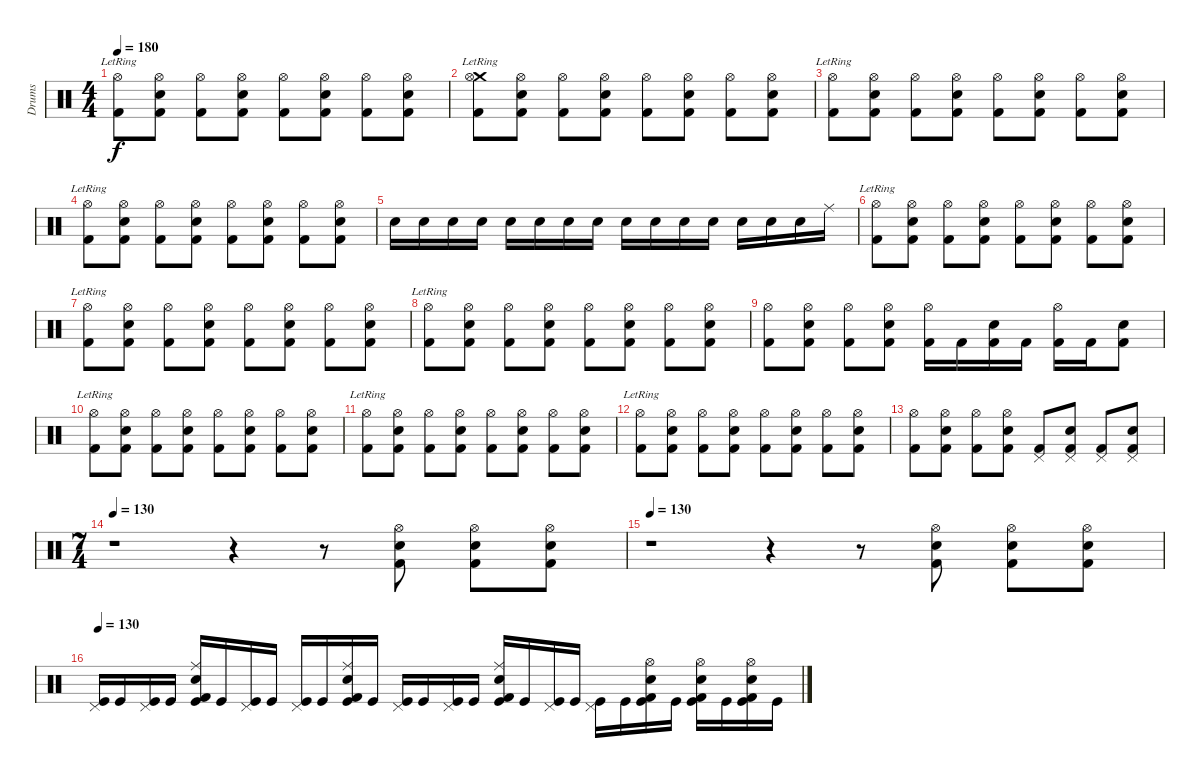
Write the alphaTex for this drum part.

\track ("Drums" "Drums") {instrument percussion}
\staff {score}
\articulation defaults
\ts (4 4)
\tempo 180
\clef neutral
\ks c
("Hi-Hat (open)"{lr} "Kick (hit) 2").8{dy f} ("Hi-Hat (open)" "Electric Snare (hit)" "Kick (hit) 2").8 ("Hi-Hat (open)" "Kick (hit) 2").8 ("Hi-Hat (open)" "Electric Snare (hit)" "Kick (hit) 2").8 ("Hi-Hat (open)" "Kick (hit) 2").8 ("Hi-Hat (open)" "Electric Snare (hit)" "Kick (hit) 2").8 ("Hi-Hat (open)" "Kick (hit) 2").8 ("Hi-Hat (open)" "Electric Snare (hit)" "Kick (hit) 2").8 |
("Crash medium (hit)" "Hi-Hat (open)"{lr} "Kick (hit) 2").8 ("Hi-Hat (open)" "Electric Snare (hit)" "Kick (hit) 2").8 ("Hi-Hat (open)" "Kick (hit) 2").8 ("Hi-Hat (open)" "Electric Snare (hit)" "Kick (hit) 2").8 ("Hi-Hat (open)" "Kick (hit) 2").8 ("Hi-Hat (open)" "Electric Snare (hit)" "Kick (hit) 2").8 ("Hi-Hat (open)" "Kick (hit) 2").8 ("Hi-Hat (open)" "Electric Snare (hit)" "Kick (hit) 2").8 |
("Hi-Hat (open)"{lr} "Kick (hit) 2").8 ("Hi-Hat (open)" "Electric Snare (hit)" "Kick (hit) 2").8 ("Hi-Hat (open)" "Kick (hit) 2").8 ("Hi-Hat (open)" "Electric Snare (hit)" "Kick (hit) 2").8 ("Hi-Hat (open)" "Kick (hit) 2").8 ("Hi-Hat (open)" "Electric Snare (hit)" "Kick (hit) 2").8 ("Hi-Hat (open)" "Kick (hit) 2").8 ("Hi-Hat (open)" "Electric Snare (hit)" "Kick (hit) 2").8 |
("Hi-Hat (open)"{lr} "Kick (hit) 2").8 ("Hi-Hat (open)" "Electric Snare (hit)" "Kick (hit) 2").8 ("Hi-Hat (open)" "Kick (hit) 2").8 ("Hi-Hat (open)" "Electric Snare (hit)" "Kick (hit) 2").8 ("Hi-Hat (open)" "Kick (hit) 2").8 ("Hi-Hat (open)" "Electric Snare (hit)" "Kick (hit) 2").8 ("Hi-Hat (open)" "Kick (hit) 2").8 ("Hi-Hat (open)" "Electric Snare (hit)" "Kick (hit) 2").8 |
"Electric Snare (hit)".16 "Electric Snare (hit)".16 "Electric Snare (hit)".16 "Electric Snare (hit)".16 "Electric Snare (hit)".16 "Electric Snare (hit)".16 "Electric Snare (hit)".16 "Electric Snare (hit)".16 "Electric Snare (hit)".16 "Electric Snare (hit)".16 "Electric Snare (hit)".16 "Electric Snare (hit)".16 "Electric Snare (hit)".16 "Electric Snare (hit)".16 "Electric Snare (hit)".16 "Ride (middle)".16 |
("Hi-Hat (open)"{lr} "Kick (hit) 2").8 ("Hi-Hat (open)" "Electric Snare (hit)" "Kick (hit) 2").8 ("Hi-Hat (open)" "Kick (hit) 2").8 ("Hi-Hat (open)" "Electric Snare (hit)" "Kick (hit) 2").8 ("Hi-Hat (open)" "Kick (hit) 2").8 ("Hi-Hat (open)" "Electric Snare (hit)" "Kick (hit) 2").8 ("Hi-Hat (open)" "Kick (hit) 2").8 ("Hi-Hat (open)" "Electric Snare (hit)" "Kick (hit) 2").8 |
("Hi-Hat (open)"{lr} "Kick (hit) 2").8 ("Hi-Hat (open)" "Electric Snare (hit)" "Kick (hit) 2").8 ("Hi-Hat (open)" "Kick (hit) 2").8 ("Hi-Hat (open)" "Electric Snare (hit)" "Kick (hit) 2").8 ("Hi-Hat (open)" "Kick (hit) 2").8 ("Hi-Hat (open)" "Electric Snare (hit)" "Kick (hit) 2").8 ("Hi-Hat (open)" "Kick (hit) 2").8 ("Hi-Hat (open)" "Electric Snare (hit)" "Kick (hit) 2").8 |
("Hi-Hat (open)"{lr} "Kick (hit) 2").8 ("Hi-Hat (open)" "Electric Snare (hit)" "Kick (hit) 2").8 ("Hi-Hat (open)" "Kick (hit) 2").8 ("Hi-Hat (open)" "Electric Snare (hit)" "Kick (hit) 2").8 ("Hi-Hat (open)" "Kick (hit) 2").8 ("Hi-Hat (open)" "Electric Snare (hit)" "Kick (hit) 2").8 ("Hi-Hat (open)" "Kick (hit) 2").8 ("Hi-Hat (open)" "Electric Snare (hit)" "Kick (hit) 2").8 |
("Hi-Hat (open)" "Kick (hit) 2").8 ("Hi-Hat (open)" "Electric Snare (hit)" "Kick (hit) 2").8 ("Hi-Hat (open)" "Kick (hit) 2").8 ("Hi-Hat (open)" "Electric Snare (hit)" "Kick (hit) 2").8 ("Hi-Hat (open)" "Kick (hit) 2").16 "Kick (hit) 2".16 ("Electric Snare (hit)" "Kick (hit) 2").16 "Kick (hit) 2".16 ("Hi-Hat (open)" "Kick (hit) 2").16 "Kick (hit) 2".16 ("Electric Snare (hit)" "Kick (hit) 2").8 |
("Hi-Hat (open)"{lr} "Kick (hit) 2").8 ("Hi-Hat (open)" "Electric Snare (hit)" "Kick (hit) 2").8 ("Hi-Hat (open)" "Kick (hit) 2").8 ("Hi-Hat (open)" "Electric Snare (hit)" "Kick (hit) 2").8 ("Hi-Hat (open)" "Kick (hit) 2").8 ("Hi-Hat (open)" "Electric Snare (hit)" "Kick (hit) 2").8 ("Hi-Hat (open)" "Kick (hit) 2").8 ("Hi-Hat (open)" "Electric Snare (hit)" "Kick (hit) 2").8 |
("Hi-Hat (open)"{lr} "Kick (hit) 2").8 ("Hi-Hat (open)" "Electric Snare (hit)" "Kick (hit) 2").8 ("Hi-Hat (open)" "Kick (hit) 2").8 ("Hi-Hat (open)" "Electric Snare (hit)" "Kick (hit) 2").8 ("Hi-Hat (open)" "Kick (hit) 2").8 ("Hi-Hat (open)" "Electric Snare (hit)" "Kick (hit) 2").8 ("Hi-Hat (open)" "Kick (hit) 2").8 ("Hi-Hat (open)" "Electric Snare (hit)" "Kick (hit) 2").8 |
("Hi-Hat (open)"{lr} "Kick (hit) 2").8 ("Hi-Hat (open)" "Electric Snare (hit)" "Kick (hit) 2").8 ("Hi-Hat (open)" "Kick (hit) 2").8 ("Hi-Hat (open)" "Electric Snare (hit)" "Kick (hit) 2").8 ("Hi-Hat (open)" "Kick (hit) 2").8 ("Hi-Hat (open)" "Electric Snare (hit)" "Kick (hit) 2").8 ("Hi-Hat (open)" "Kick (hit) 2").8 ("Hi-Hat (open)" "Electric Snare (hit)" "Kick (hit) 2").8 |
("Hi-Hat (open)" "Kick (hit) 2").8 ("Hi-Hat (open)" "Electric Snare (hit)" "Kick (hit) 2").8 ("Hi-Hat (open)" "Kick (hit) 2").8 ("Hi-Hat (open)" "Electric Snare (hit)" "Kick (hit) 2").8 ("Pedal Hi-Hat (hit)" "Kick (hit) 2").8 ("Pedal Hi-Hat (hit)" "Electric Snare (hit)" "Kick (hit) 2").8 ("Pedal Hi-Hat (hit)" "Kick (hit) 2").8 ("Pedal Hi-Hat (hit)" "Electric Snare (hit)" "Kick (hit) 2").8 |
\ts (7 4)
\tempo 130
r.1 r.4 r.8 ("Hi-Hat (open)" "Electric Snare (hit)" "Kick (hit) 2").8 ("Hi-Hat (open)" "Electric Snare (hit)" "Kick (hit) 2").8 ("Hi-Hat (open)" "Electric Snare (hit)" "Kick (hit) 2").8 |
\tempo 130
r.1 r.4 r.8 ("Hi-Hat (open)" "Electric Snare (hit)" "Kick (hit) 2").8 ("Hi-Hat (open)" "Electric Snare (hit)" "Kick (hit) 2").8 ("Hi-Hat (open)" "Electric Snare (hit)" "Kick (hit) 2").8 |
\tempo 130
("Pedal Hi-Hat (hit)" "Kick (hit)").16 "Kick (hit)".16 ("Pedal Hi-Hat (hit)" "Kick (hit)").16 "Kick (hit)".16 ("Ride (middle)" "Electric Snare (hit)" "Kick (hit) 2" "Kick (hit)").16 "Kick (hit)".16 ("Pedal Hi-Hat (hit)" "Kick (hit)").16 "Kick (hit)".16 ("Pedal Hi-Hat (hit)" "Kick (hit)").16 "Kick (hit)".16 ("Ride (middle)" "Electric Snare (hit)" "Kick (hit) 2" "Kick (hit)").16 "Kick (hit)".16 ("Pedal Hi-Hat (hit)" "Kick (hit)").16 "Kick (hit)".16 ("Pedal Hi-Hat (hit)" "Kick (hit)").16 "Kick (hit)".16 ("Ride (middle)" "Electric Snare (hit)" "Kick (hit) 2" "Kick (hit)").16 "Kick (hit)".16 ("Pedal Hi-Hat (hit)" "Kick (hit)").16 "Kick (hit)".16 ("Pedal Hi-Hat (hit)" "Kick (hit)").16 "Kick (hit)".16 ("Hi-Hat (open)" "Electric Snare (hit)" "Kick (hit) 2" "Kick (hit)").16 "Kick (hit)".16 ("Hi-Hat (open)" "Electric Snare (hit)" "Kick (hit) 2" "Kick (hit)").16 "Kick (hit)".16 ("Hi-Hat (open)" "Electric Snare (hit)" "Kick (hit) 2" "Kick (hit)").16 "Kick (hit)".16
